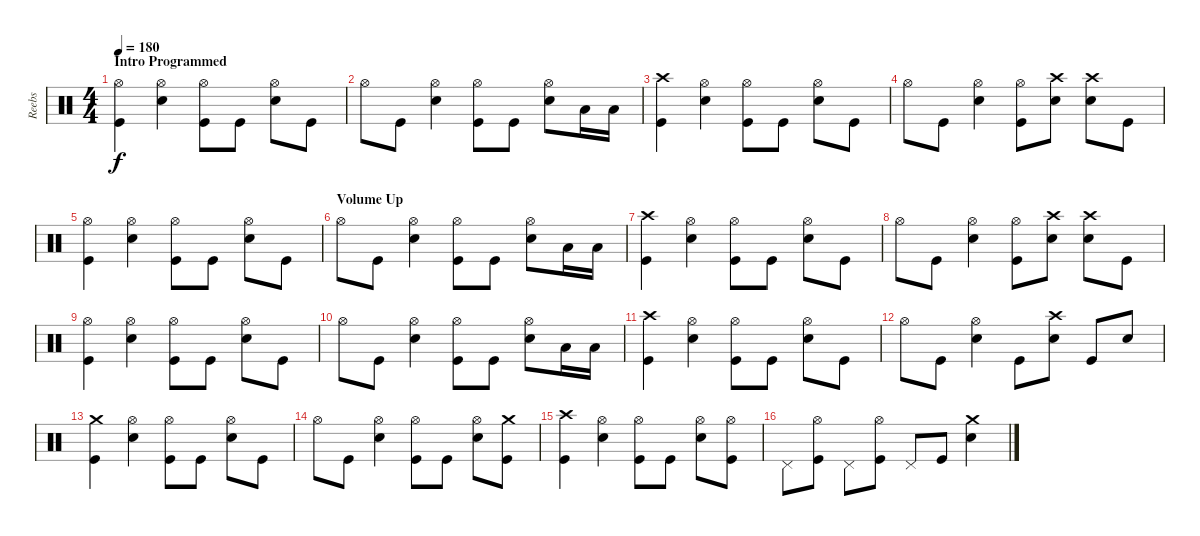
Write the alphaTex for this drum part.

\track ("Reebs" "Reebs") {instrument percussion}
\staff {score}
\articulation defaults
\ts (4 4)
\section ("" "Intro Programmed")
\tempo 180
\clef neutral
\ks c
("Hi-Hat (open)" "Kick (hit)").4{dy f volume 0} ("Hi-Hat (open)" "Electric Snare (hit)").4 ("Hi-Hat (open)" "Kick (hit)").8 "Kick (hit)".8 ("Hi-Hat (open)" "Electric Snare (hit)").8 "Kick (hit)".8 |
"Hi-Hat (open)".8 "Kick (hit)".8 ("Hi-Hat (open)" "Electric Snare (hit)").4 ("Hi-Hat (open)" "Kick (hit)").8 "Kick (hit)".8 ("Hi-Hat (open)" "Electric Snare (hit)").8 "Low Tom (hit)".16 "Low Tom (hit)".16 |
("Crash high (hit)" "Kick (hit)").4 ("Hi-Hat (open)" "Electric Snare (hit)").4 ("Hi-Hat (open)" "Kick (hit)").8 "Kick (hit)".8 ("Hi-Hat (open)" "Electric Snare (hit)").8 "Kick (hit)".8 |
"Hi-Hat (open)".8 "Kick (hit)".8 ("Hi-Hat (open)" "Electric Snare (hit)").4 ("Hi-Hat (open)" "Kick (hit)").8 ("Crash high (hit)" "Electric Snare (hit)").8 ("Crash high (hit)" "Electric Snare (hit)").8 "Kick (hit)".8 |
("Hi-Hat (open)" "Kick (hit)").4 ("Hi-Hat (open)" "Electric Snare (hit)").4 ("Hi-Hat (open)" "Kick (hit)").8 "Kick (hit)".8 ("Hi-Hat (open)" "Electric Snare (hit)").8 "Kick (hit)".8 |
\section ("" "Volume Up")
"Hi-Hat (open)".8 "Kick (hit)".8 ("Hi-Hat (open)" "Electric Snare (hit)").4 ("Hi-Hat (open)" "Kick (hit)").8{volume 12} "Kick (hit)".8 ("Hi-Hat (open)" "Electric Snare (hit)").8 "Low Tom (hit)".16 "Low Tom (hit)".16 |
("Crash high (hit)" "Kick (hit)").4 ("Hi-Hat (open)" "Electric Snare (hit)").4 ("Hi-Hat (open)" "Kick (hit)").8 "Kick (hit)".8 ("Hi-Hat (open)" "Electric Snare (hit)").8 "Kick (hit)".8 |
"Hi-Hat (open)".8 "Kick (hit)".8 ("Hi-Hat (open)" "Electric Snare (hit)").4 ("Hi-Hat (open)" "Kick (hit)").8 ("Crash high (hit)" "Electric Snare (hit)").8 ("Crash high (hit)" "Electric Snare (hit)").8 "Kick (hit)".8 |
("Hi-Hat (open)" "Kick (hit)").4 ("Hi-Hat (open)" "Electric Snare (hit)").4 ("Hi-Hat (open)" "Kick (hit)").8 "Kick (hit)".8 ("Hi-Hat (open)" "Electric Snare (hit)").8 "Kick (hit)".8 |
"Hi-Hat (open)".8 "Kick (hit)".8 ("Hi-Hat (open)" "Electric Snare (hit)").4 ("Hi-Hat (open)" "Kick (hit)").8 "Kick (hit)".8 ("Hi-Hat (open)" "Electric Snare (hit)").8 "Low Tom (hit)".16 "Low Tom (hit)".16 |
("Crash high (hit)" "Kick (hit)").4 ("Hi-Hat (open)" "Electric Snare (hit)").4 ("Hi-Hat (open)" "Kick (hit)").8 "Kick (hit)".8 ("Hi-Hat (open)" "Electric Snare (hit)").8 "Kick (hit)".8 |
"Hi-Hat (open)".8 "Kick (hit)".8 ("Hi-Hat (open)" "Electric Snare (hit)").4 "Kick (hit)".8 ("Crash high (hit)" "Electric Snare (hit)").8 "Kick (hit)".8 "Electric Snare (hit)".8 |
("Crash medium (hit)" "Kick (hit)").4 ("Hi-Hat (open)" "Electric Snare (hit)").4 ("Hi-Hat (open)" "Kick (hit)").8 "Kick (hit)".8 ("Hi-Hat (open)" "Electric Snare (hit)").8 "Kick (hit)".8 |
"Hi-Hat (open)".8 "Kick (hit)".8 ("Hi-Hat (open)" "Electric Snare (hit)").4 ("Hi-Hat (open)" "Kick (hit)").8 "Kick (hit)".8 ("Hi-Hat (open)" "Electric Snare (hit)").8 ("Crash medium (hit)" "Kick (hit)").8 |
("Crash high (hit)" "Kick (hit)").4 ("Hi-Hat (open)" "Electric Snare (hit)").4 ("Hi-Hat (open)" "Kick (hit)").8 "Kick (hit)".8 ("Hi-Hat (open)" "Electric Snare (hit)").8 ("Hi-Hat (open)" "Kick (hit)").8 |
"Pedal Hi-Hat (hit)".8 ("Hi-Hat (open)" "Kick (hit)").8 "Pedal Hi-Hat (hit)".8 ("Hi-Hat (open)" "Kick (hit)").8 "Pedal Hi-Hat (hit)".8 "Kick (hit)".8 ("Crash medium (hit)" "Electric Snare (hit)").4
